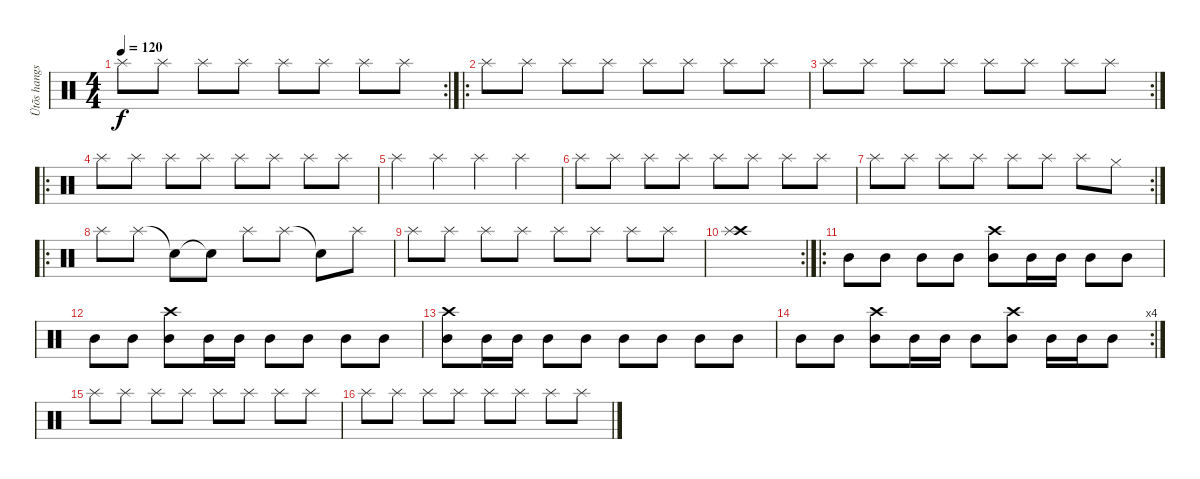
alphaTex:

\track ("Ütõs hangszer" "Ütõs hangs") {instrument percussion}
\staff {score}
\articulation defaults
\rc 2
\ts (4 4)
\tempo 120
\clef neutral
\ks c "Splash (hit)".8{dy f} "Splash (hit)".8 "Splash (hit)".8 "Splash (hit)".8 "Splash (hit)".8 "Splash (hit)".8 "Splash (hit)".8 "Splash (hit)".8
|
\ro "Splash (hit)".8 "Splash (hit)".8 "Splash (hit)".8 "Splash (hit)".8 "Splash (hit)".8 "Splash (hit)".8 "Splash (hit)".8 "Splash (hit)".8
|
\rc 2 "Splash (hit)".8 "Splash (hit)".8 "Splash (hit)".8 "Splash (hit)".8 "Splash (hit)".8 "Splash (hit)".8 "Splash (hit)".8 "Splash (hit)".8
|
\ro "Splash (hit)".8 "Splash (hit)".8 "Splash (hit)".8 "Splash (hit)".8 "Splash (hit)".8 "Splash (hit)".8 "Splash (hit)".8 "Splash (hit)".8
|
"Splash (hit)".4 "Splash (hit)".4 "Splash (hit)".4 "Splash (hit)".4 |
"Splash (hit)".8 "Splash (hit)".8 "Splash (hit)".8 "Splash (hit)".8 "Splash (hit)".8 "Splash (hit)".8 "Splash (hit)".8 "Splash (hit)".8 |
\rc 2 "Splash (hit)".8 "Splash (hit)".8 "Splash (hit)".8 "Splash (hit)".8 "Splash (hit)".8 "Splash (hit)".8 "Splash (hit)".8 "Hi-Hat (closed)".8
|
\ro "Splash (hit)".8 "Splash (hit)".8 "Snare (hit)"{t}.8 "Snare (hit)"{t}.8 "Splash (hit)".8 "Splash (hit)".8 "Snare (hit)"{t}.8 "Splash (hit)".8
|
"Splash (hit)".8 "Splash (hit)".8 "Splash (hit)".8 "Splash (hit)".8 "Splash (hit)".8 "Splash (hit)".8 "Splash (hit)".8 "Splash (hit)".8 |
\rc 2
("Crash high (hit)" "Splash (hit)").1 |
\ro "Mid Tom (hit)".8 "Mid Tom (hit)".8 "Mid Tom (hit)".8 "Mid Tom (hit)".8
("Mid Tom (hit)" "Crash high (hit)").8 "Mid Tom (hit)".16 "Mid Tom (hit)".16 "Mid Tom (hit)".8 "Mid Tom (hit)".8 |
"Mid Tom (hit)".8 "Mid Tom (hit)".8 ("Mid Tom (hit)" "Crash high (hit)").8 "Mid Tom (hit)".16 "Mid Tom (hit)".16 "Mid Tom (hit)".8 "Mid Tom (hit)".8 "Mid Tom (hit)".8 "Mid Tom (hit)".8 |
("Mid Tom (hit)" "Crash high (hit)").8 "Mid Tom (hit)".16 "Mid Tom (hit)".16 "Mid Tom (hit)".8 "Mid Tom (hit)".8 "Mid Tom (hit)".8 "Mid Tom (hit)".8 "Mid Tom (hit)".8 "Mid Tom (hit)".8 |
\rc 4 "Mid Tom (hit)".8 "Mid Tom (hit)".8
("Mid Tom (hit)" "Crash high (hit)").8 "Mid Tom (hit)".16 "Mid Tom (hit)".16 "Mid Tom (hit)".8 ("Mid Tom (hit)" "Crash high (hit)").8 "Mid Tom (hit)".16 "Mid Tom (hit)".16 "Mid Tom (hit)".8 |
"Splash (hit)".8 "Splash (hit)".8 "Splash (hit)".8 "Splash (hit)".8 "Splash (hit)".8 "Splash (hit)".8 "Splash (hit)".8 "Splash (hit)".8 |
"Splash (hit)".8 "Splash (hit)".8 "Splash (hit)".8 "Splash (hit)".8 "Splash (hit)".8 "Splash (hit)".8 "Splash (hit)".8 "Splash (hit)".8
